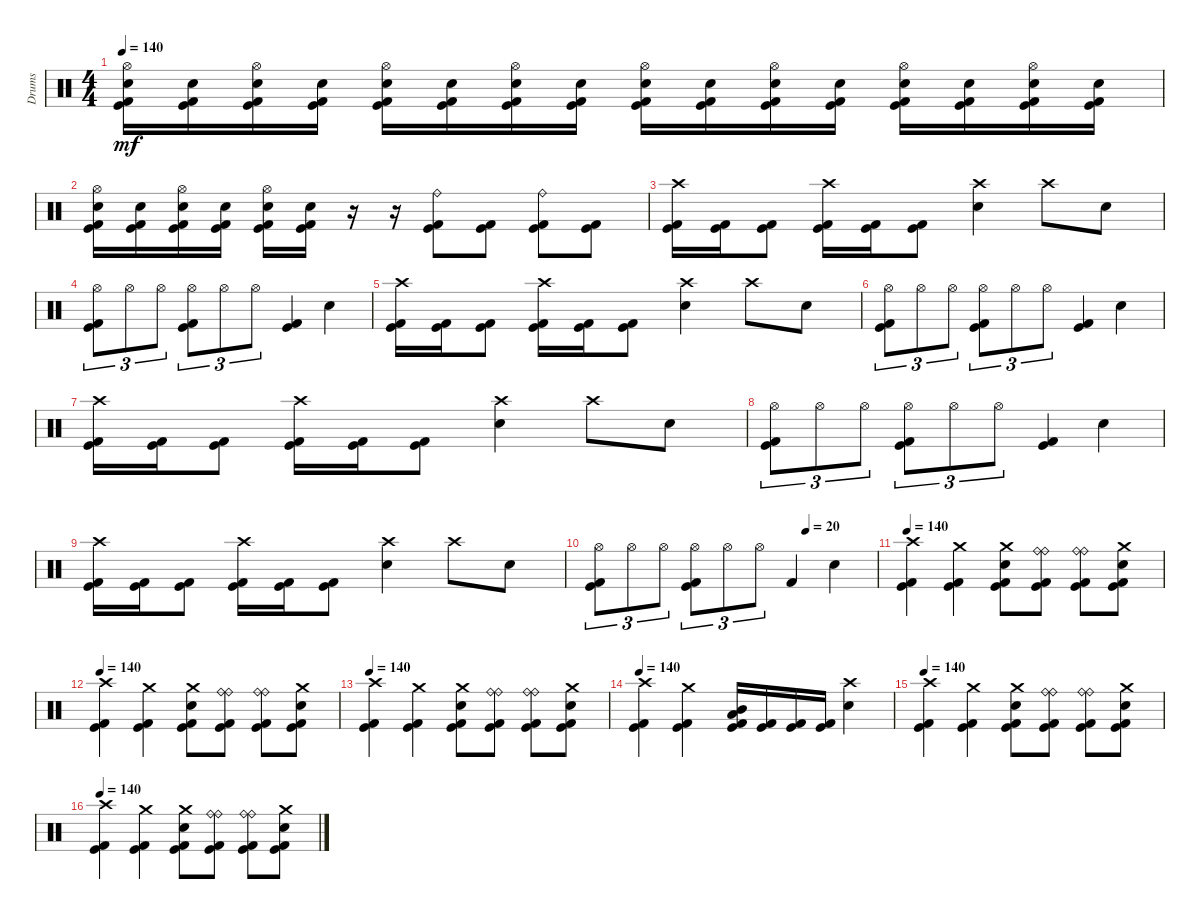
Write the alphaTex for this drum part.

\track ("Drums" "Drums") {instrument percussion}
\staff {score}
\articulation defaults
\ts (4 4)
\tempo 140
\clef neutral
\ks c
("Hi-Hat (open)" "Electric Snare (hit)" "Kick (hit) 2" "Kick (hit)").16{dy mf} ("Electric Snare (hit)" "Kick (hit) 2" "Kick (hit)").16 ("Hi-Hat (open)" "Electric Snare (hit)" "Kick (hit) 2" "Kick (hit)").16 ("Electric Snare (hit)" "Kick (hit) 2" "Kick (hit)").16 ("Hi-Hat (open)" "Electric Snare (hit)" "Kick (hit) 2" "Kick (hit)").16 ("Electric Snare (hit)" "Kick (hit) 2" "Kick (hit)").16 ("Hi-Hat (open)" "Electric Snare (hit)" "Kick (hit) 2" "Kick (hit)").16 ("Electric Snare (hit)" "Kick (hit) 2" "Kick (hit)").16 ("Hi-Hat (open)" "Electric Snare (hit)" "Kick (hit) 2" "Kick (hit)").16 ("Electric Snare (hit)" "Kick (hit) 2" "Kick (hit)").16 ("Hi-Hat (open)" "Electric Snare (hit)" "Kick (hit) 2" "Kick (hit)").16 ("Electric Snare (hit)" "Kick (hit) 2" "Kick (hit)").16 ("Hi-Hat (open)" "Electric Snare (hit)" "Kick (hit) 2" "Kick (hit)").16 ("Electric Snare (hit)" "Kick (hit) 2" "Kick (hit)").16 ("Hi-Hat (open)" "Electric Snare (hit)" "Kick (hit) 2" "Kick (hit)").16 ("Electric Snare (hit)" "Kick (hit) 2" "Kick (hit)").16 |
("Hi-Hat (open)" "Electric Snare (hit)" "Kick (hit) 2" "Kick (hit)").16 ("Electric Snare (hit)" "Kick (hit) 2" "Kick (hit)").16 ("Hi-Hat (open)" "Electric Snare (hit)" "Kick (hit) 2" "Kick (hit)").16 ("Electric Snare (hit)" "Kick (hit) 2" "Kick (hit)").16 ("Hi-Hat (open)" "Electric Snare (hit)" "Kick (hit) 2" "Kick (hit)").16 ("Electric Snare (hit)" "Kick (hit) 2" "Kick (hit)").16 r.16 r.16 ("Ride (bell)" "Kick (hit) 2" "Kick (hit)").8 ("Kick (hit) 2" "Kick (hit)").8 ("Ride (bell)" "Kick (hit) 2" "Kick (hit)").8 ("Kick (hit) 2" "Kick (hit)").8 |
("Crash high (hit)" "Kick (hit) 2" "Kick (hit)").16 ("Kick (hit) 2" "Kick (hit)").16 ("Kick (hit) 2" "Kick (hit)").8 ("Crash high (hit)" "Kick (hit) 2" "Kick (hit)").16 ("Kick (hit) 2" "Kick (hit)").16 ("Kick (hit) 2" "Kick (hit)").8 ("Crash high (hit)" "Electric Snare (hit)").4 "Crash high (hit)".8 "Electric Snare (hit)".8 |
("Hi-Hat (open)" "Kick (hit) 2" "Kick (hit)").8{tu (3 2)} "Hi-Hat (open)".8{tu (3 2)} "Hi-Hat (open)".8{tu (3 2)} ("Hi-Hat (open)" "Kick (hit) 2" "Kick (hit)").8{tu (3 2)} "Hi-Hat (open)".8{tu (3 2)} "Hi-Hat (open)".8{tu (3 2)} ("Kick (hit) 2" "Kick (hit)").4 "Electric Snare (hit)".4 |
("Crash high (hit)" "Kick (hit) 2" "Kick (hit)").16 ("Kick (hit) 2" "Kick (hit)").16 ("Kick (hit) 2" "Kick (hit)").8 ("Crash high (hit)" "Kick (hit) 2" "Kick (hit)").16 ("Kick (hit) 2" "Kick (hit)").16 ("Kick (hit) 2" "Kick (hit)").8 ("Crash high (hit)" "Electric Snare (hit)").4 "Crash high (hit)".8 "Electric Snare (hit)".8 |
("Hi-Hat (open)" "Kick (hit) 2" "Kick (hit)").8{tu (3 2)} "Hi-Hat (open)".8{tu (3 2)} "Hi-Hat (open)".8{tu (3 2)} ("Hi-Hat (open)" "Kick (hit) 2" "Kick (hit)").8{tu (3 2)} "Hi-Hat (open)".8{tu (3 2)} "Hi-Hat (open)".8{tu (3 2)} ("Kick (hit) 2" "Kick (hit)").4 "Electric Snare (hit)".4 |
("Crash high (hit)" "Kick (hit) 2" "Kick (hit)").16 ("Kick (hit) 2" "Kick (hit)").16 ("Kick (hit) 2" "Kick (hit)").8 ("Crash high (hit)" "Kick (hit) 2" "Kick (hit)").16 ("Kick (hit) 2" "Kick (hit)").16 ("Kick (hit) 2" "Kick (hit)").8 ("Crash high (hit)" "Electric Snare (hit)").4 "Crash high (hit)".8 "Electric Snare (hit)".8 |
("Hi-Hat (open)" "Kick (hit) 2" "Kick (hit)").8{tu (3 2)} "Hi-Hat (open)".8{tu (3 2)} "Hi-Hat (open)".8{tu (3 2)} ("Hi-Hat (open)" "Kick (hit) 2" "Kick (hit)").8{tu (3 2)} "Hi-Hat (open)".8{tu (3 2)} "Hi-Hat (open)".8{tu (3 2)} ("Kick (hit) 2" "Kick (hit)").4 "Electric Snare (hit)".4 |
("Crash high (hit)" "Kick (hit) 2" "Kick (hit)").16 ("Kick (hit) 2" "Kick (hit)").16 ("Kick (hit) 2" "Kick (hit)").8 ("Crash high (hit)" "Kick (hit) 2" "Kick (hit)").16 ("Kick (hit) 2" "Kick (hit)").16 ("Kick (hit) 2" "Kick (hit)").8 ("Crash high (hit)" "Electric Snare (hit)").4 "Crash high (hit)".8 "Electric Snare (hit)".8 |
\tempo (20 0.75)
("Hi-Hat (open)" "Kick (hit) 2" "Kick (hit)").8{tu (3 2)} "Hi-Hat (open)".8{tu (3 2)} "Hi-Hat (open)".8{tu (3 2)} ("Hi-Hat (open)" "Kick (hit) 2" "Kick (hit)").8{tu (3 2)} "Hi-Hat (open)".8{tu (3 2)} "Hi-Hat (open)".8{tu (3 2)} "Kick (hit) 2".4 "Electric Snare (hit)".4 |
\tempo 140
("Crash high (hit)" "Kick (hit) 2" "Kick (hit)").4 ("Crash medium (hit)" "Kick (hit) 2" "Kick (hit)").4 ("Crash medium (hit)" "Electric Snare (hit)" "Kick (hit) 2" "Kick (hit)").8 ("Ride (bell)" "Ride (bell)" "Kick (hit) 2" "Kick (hit)").8 ("Ride (bell)" "Ride (bell)" "Kick (hit) 2" "Kick (hit)").8 ("Crash medium (hit)" "Electric Snare (hit)" "Kick (hit) 2" "Kick (hit)").8 |
\tempo 140
("Crash high (hit)" "Kick (hit) 2" "Kick (hit)").4 ("Crash medium (hit)" "Kick (hit) 2" "Kick (hit)").4 ("Crash medium (hit)" "Electric Snare (hit)" "Kick (hit) 2" "Kick (hit)").8 ("Ride (bell)" "Ride (bell)" "Kick (hit) 2" "Kick (hit)").8 ("Ride (bell)" "Ride (bell)" "Kick (hit) 2" "Kick (hit)").8 ("Crash medium (hit)" "Electric Snare (hit)" "Kick (hit) 2" "Kick (hit)").8 |
\tempo 140
("Crash high (hit)" "Kick (hit) 2" "Kick (hit)").4 ("Crash medium (hit)" "Kick (hit) 2" "Kick (hit)").4 ("Crash medium (hit)" "Electric Snare (hit)" "Kick (hit) 2" "Kick (hit)").8 ("Ride (bell)" "Ride (bell)" "Kick (hit) 2" "Kick (hit)").8 ("Ride (bell)" "Ride (bell)" "Kick (hit) 2" "Kick (hit)").8 ("Crash medium (hit)" "Electric Snare (hit)" "Kick (hit) 2" "Kick (hit)").8 |
\tempo 140
("Crash high (hit)" "Kick (hit) 2" "Kick (hit)").4 ("Crash medium (hit)" "Kick (hit) 2" "Kick (hit)").4 ("Mid Tom (hit)" "Low Tom (hit)" "Kick (hit) 2" "Kick (hit)").16 ("Kick (hit) 2" "Kick (hit)").16 ("Kick (hit) 2" "Kick (hit)").16 ("Kick (hit) 2" "Kick (hit)").16 ("Crash high (hit)" "Electric Snare (hit)").4 |
\tempo 140
("Crash high (hit)" "Kick (hit) 2" "Kick (hit)").4 ("Crash medium (hit)" "Kick (hit) 2" "Kick (hit)").4 ("Crash medium (hit)" "Electric Snare (hit)" "Kick (hit) 2" "Kick (hit)").8 ("Ride (bell)" "Ride (bell)" "Kick (hit) 2" "Kick (hit)").8 ("Ride (bell)" "Ride (bell)" "Kick (hit) 2" "Kick (hit)").8 ("Crash medium (hit)" "Electric Snare (hit)" "Kick (hit) 2" "Kick (hit)").8 |
\tempo 140
("Crash high (hit)" "Kick (hit) 2" "Kick (hit)").4 ("Crash medium (hit)" "Kick (hit) 2" "Kick (hit)").4 ("Crash medium (hit)" "Electric Snare (hit)" "Kick (hit) 2" "Kick (hit)").8 ("Ride (bell)" "Ride (bell)" "Kick (hit) 2" "Kick (hit)").8 ("Ride (bell)" "Ride (bell)" "Kick (hit) 2" "Kick (hit)").8 ("Crash medium (hit)" "Electric Snare (hit)" "Kick (hit) 2" "Kick (hit)").8
